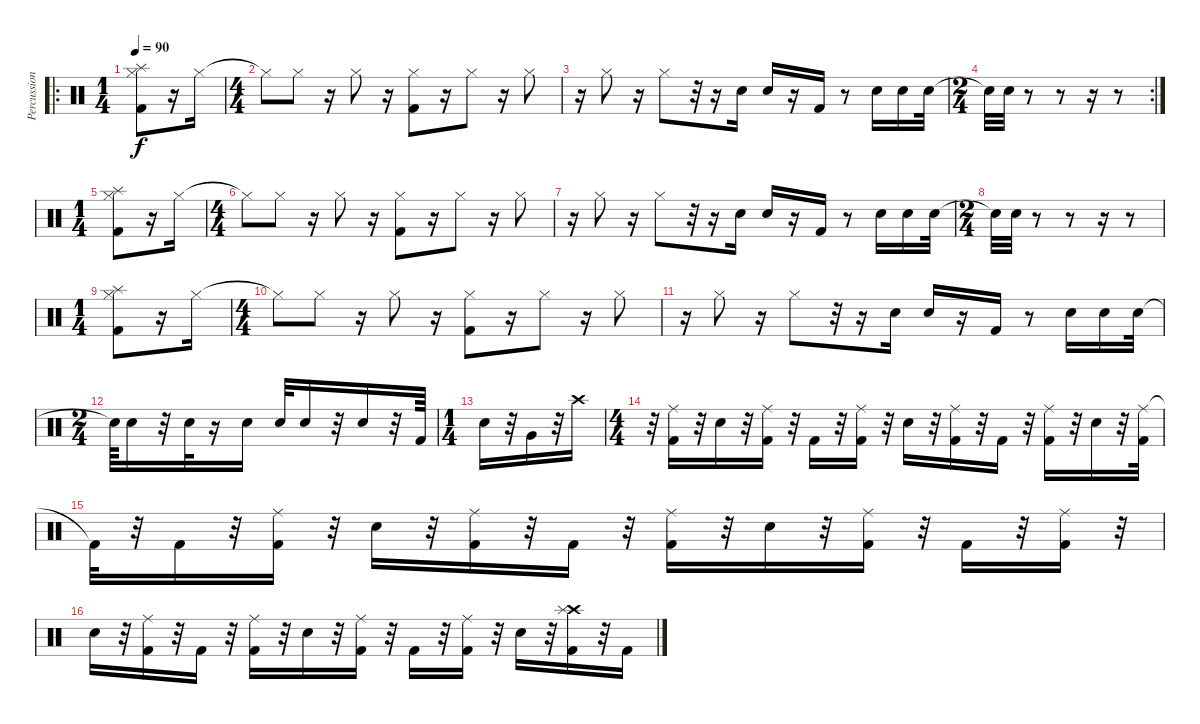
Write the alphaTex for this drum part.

\track ("Percussioni" "Percussion") {instrument percussion}
\staff {score}
\articulation defaults
\ro
\ts (1 4)
\tempo 90
\clef neutral
\ks c
("Splash (hit)" "Hi-Hat (closed)" "Kick (hit) 2").8{dy f} r.16 "Hi-Hat (closed)".16 |
\ts (4 4)
"Hi-Hat (closed)"{t}.8 "Hi-Hat (closed)".8 r.16 "Hi-Hat (closed)".8 r.16 ("Hi-Hat (closed)" "Kick (hit) 2").8 r.16 "Hi-Hat (closed)".8 r.16 "Hi-Hat (closed)".8 |
r.16 "Hi-Hat (closed)".8 r.16 "Hi-Hat (closed)".8 r.32 r.16 "Snare (hit) 2".16 "Snare (hit) 2".16 r.16 "Kick (hit) 2".16 r.8 "Electric Snare (hit)".16 "Electric Snare (hit)".16 "Electric Snare (hit)".32 |
\rc 2
\ts (2 4)
"Snare (hit)"{t}.32 "Electric Snare (hit)".32 r.8 r.8 r.16 r.8 |
\ts (1 4)
("Splash (hit)" "Hi-Hat (closed)" "Kick (hit) 2").8 r.16 "Hi-Hat (closed)".16 |
\ts (4 4)
"Hi-Hat (closed)"{t}.8 "Hi-Hat (closed)".8 r.16 "Hi-Hat (closed)".8 r.16 ("Hi-Hat (closed)" "Kick (hit) 2").8 r.16 "Hi-Hat (closed)".8 r.16 "Hi-Hat (closed)".8 |
r.16 "Hi-Hat (closed)".8 r.16 "Hi-Hat (closed)".8 r.32 r.16 "Snare (hit) 2".16 "Snare (hit) 2".16 r.16 "Kick (hit) 2".16 r.8 "Electric Snare (hit)".16 "Electric Snare (hit)".16 "Electric Snare (hit)".32 |
\ts (2 4)
"Snare (hit)"{t}.32 "Electric Snare (hit)".32 r.8 r.8 r.16 r.8 |
\ts (1 4)
("Splash (hit)" "Hi-Hat (closed)" "Kick (hit) 2").8 r.16 "Hi-Hat (closed)".16 |
\ts (4 4)
"Hi-Hat (closed)"{t}.8 "Hi-Hat (closed)".8 r.16 "Hi-Hat (closed)".8 r.16 ("Hi-Hat (closed)" "Kick (hit) 2").8 r.16 "Hi-Hat (closed)".8 r.16 "Hi-Hat (closed)".8 |
r.16 "Hi-Hat (closed)".8 r.16 "Hi-Hat (closed)".8 r.32 r.16 "Snare (hit) 2".16 "Snare (hit) 2".16 r.16 "Kick (hit) 2".16 r.8 "Electric Snare (hit)".16 "Electric Snare (hit)".16 "Electric Snare (hit)".32 |
\ts (2 4)
"Snare (hit)"{t}.64 "Electric Snare (hit)".16 r.32 "Electric Snare (hit)".32 r.16 "Electric Snare (hit)".16 "Electric Snare (hit)".32 "Electric Snare (hit)".16 r.32 "Electric Snare (hit)".16 r.32 "Kick (hit) 2".64 |
\ts (1 4)
"Electric Snare (hit)".16 r.32 "Very Low Tom (hit)".16 r.32 "Crash high (hit)".16 |
\ts (4 4)
r.32 ("Ride (middle)" "Kick (hit) 2").16 r.32 "Electric Snare (hit)".16 r.32 ("Ride (middle)" "Kick (hit) 2").16 r.32 "Kick (hit) 2".16 r.32 ("Ride (middle)" "Kick (hit) 2").16 r.32 "Electric Snare (hit)".16 r.32 ("Ride (middle)" "Kick (hit) 2").16 r.32 "Kick (hit) 2".16 r.32 ("Ride (middle)" "Kick (hit) 2").16 r.32 "Electric Snare (hit)".16 r.32 ("Ride (middle)" "Kick (hit) 2").32 |
"Kick (hit) 2"{t}.32 r.32 "Kick (hit) 2".16 r.32 ("Ride (middle)" "Kick (hit) 2").16 r.32 "Electric Snare (hit)".16 r.32 ("Ride (middle)" "Kick (hit) 2").16 r.32 "Kick (hit) 2".16 r.32 ("Ride (middle)" "Kick (hit) 2").16 r.32 "Electric Snare (hit)".16 r.32 ("Ride (middle)" "Kick (hit) 2").16 r.32 "Kick (hit) 2".16 r.32 ("Ride (middle)" "Kick (hit) 2").16 r.32 |
"Electric Snare (hit)".16 r.32 ("Ride (middle)" "Kick (hit) 2").16 r.32 "Kick (hit) 2".16 r.32 ("Ride (middle)" "Kick (hit) 2").16 r.32 "Electric Snare (hit)".16 r.32 ("Ride (middle)" "Kick (hit) 2").16 r.32 "Kick (hit) 2".16 r.32 ("Ride (middle)" "Kick (hit) 2").16 r.32 "Electric Snare (hit)".16 r.32 ("Crash high (hit)" "Splash (hit)" "Kick (hit) 2").16 r.32 "Kick (hit) 2".16
